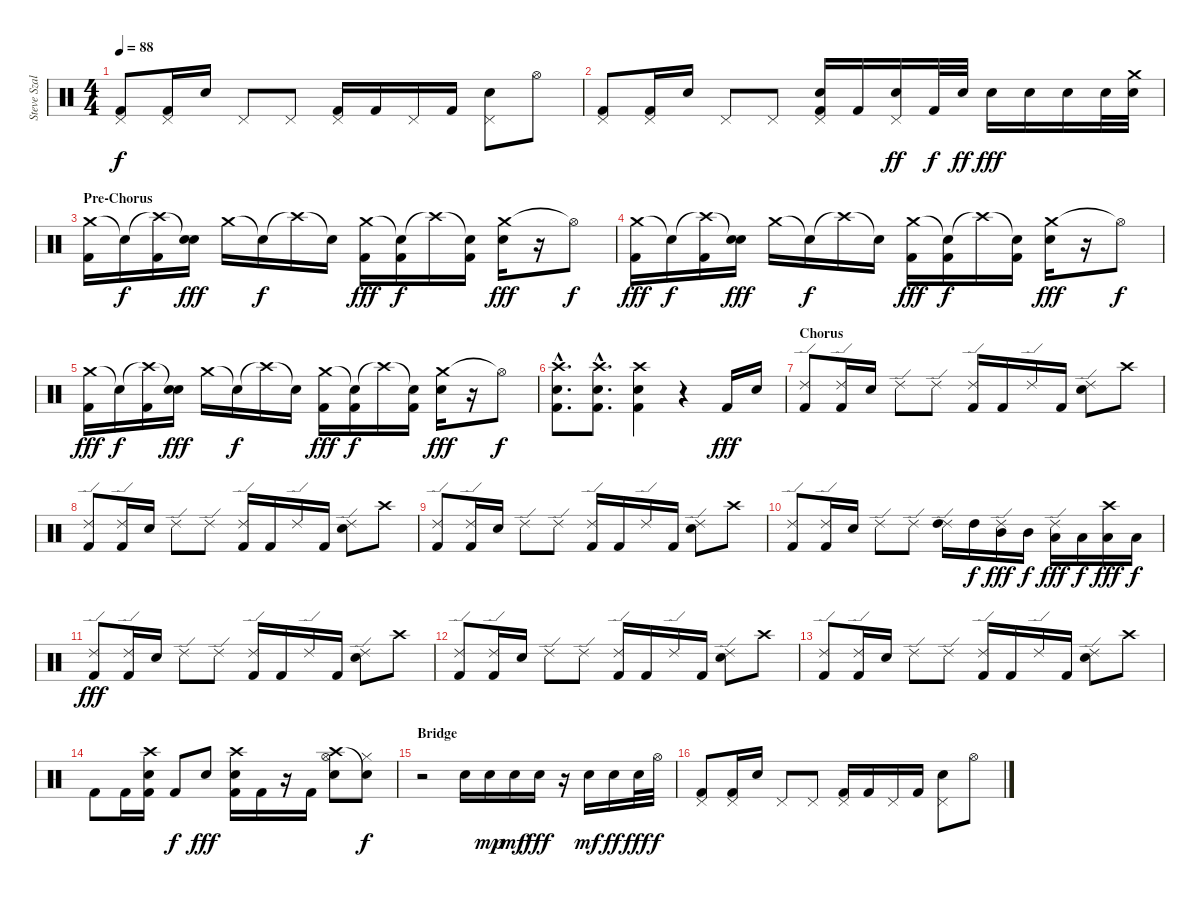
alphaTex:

\track ("Steve Szalay " "Steve Szal") {instrument percussion}
\staff {score}
\articulation defaults
\ts (4 4)
\tempo 88
\clef neutral
\ks c
("Pedal Hi-Hat (hit)" "Kick (hit) 2").8{dy f} ("Pedal Hi-Hat (hit)" "Kick (hit) 2").16 "Electric Snare (hit)".16 "Pedal Hi-Hat (hit)".8 "Pedal Hi-Hat (hit)".8 ("Pedal Hi-Hat (hit)" "Kick (hit) 2").16 "Kick (hit) 2".16 "Pedal Hi-Hat (hit)".16 "Kick (hit) 2".16 ("Pedal Hi-Hat (hit)" "Electric Snare (hit)").8 "Hi-Hat (open)".8 |
("Pedal Hi-Hat (hit)" "Kick (hit) 2").8 ("Pedal Hi-Hat (hit)" "Kick (hit) 2").16 "Electric Snare (hit)".16 "Pedal Hi-Hat (hit)".8 "Pedal Hi-Hat (hit)".8 ("Pedal Hi-Hat (hit)" "Electric Snare (hit)" "Kick (hit) 2").16 "Kick (hit) 2".16 ("Pedal Hi-Hat (hit)" "Electric Snare (hit)").16{dy ff} "Kick (hit) 2".32{dy f} "Electric Snare (hit)".32{dy ff} "Electric Snare (hit)".16{dy fff} "Electric Snare (hit)".16 "Electric Snare (hit)".16 "Electric Snare (hit)".32 ("Crash medium (hit)" "Electric Snare (hit)").32 |
\section ("" "Pre-Chorus")
("Crash medium (hit)" "Kick (hit) 2").16 "Snare (hit)"{t}.16{dy f} ("Crash high (hit)"{t} "Kick (hit) 2").16 ("Snare (hit)"{t} "Electric Snare (hit)").16{dy fff} "Crash medium (hit)".16 "Snare (hit)"{t}.16{dy f} "Crash high (hit)"{t}.16 "Snare (hit)"{t}.16 ("Crash medium (hit)" "Kick (hit) 2").16{dy fff} ("Snare (hit)"{t} "Kick (hit) 2").16{dy f} "Crash high (hit)"{t}.16 ("Snare (hit)"{t} "Kick (hit) 2").16 ("Crash medium (hit)" "Electric Snare (hit)").16{dy fff} r.16 "Hi-Hat (open)"{t}.8{dy f} |
("Crash medium (hit)" "Kick (hit) 2").16{dy fff} "Snare (hit)"{t}.16{dy f} ("Crash high (hit)"{t} "Kick (hit) 2").16 ("Snare (hit)"{t} "Electric Snare (hit)").16{dy fff} "Crash medium (hit)".16 "Snare (hit)"{t}.16{dy f} "Crash high (hit)"{t}.16 "Snare (hit)"{t}.16 ("Crash medium (hit)" "Kick (hit) 2").16{dy fff} ("Snare (hit)"{t} "Kick (hit) 2").16{dy f} "Crash high (hit)"{t}.16 ("Snare (hit)"{t} "Kick (hit) 2").16 ("Crash medium (hit)" "Electric Snare (hit)").16{dy fff} r.16 "Hi-Hat (open)"{t}.8{dy f} |
("Crash medium (hit)" "Kick (hit) 2").16{dy fff} "Snare (hit)"{t}.16{dy f} ("Crash high (hit)"{t} "Kick (hit) 2").16 ("Snare (hit)"{t} "Electric Snare (hit)").16{dy fff} "Crash medium (hit)".16 "Snare (hit)"{t}.16{dy f} "Crash high (hit)"{t}.16 "Snare (hit)"{t}.16 ("Crash medium (hit)" "Kick (hit) 2").16{dy fff} ("Snare (hit)"{t} "Kick (hit) 2").16{dy f} "Crash high (hit)"{t}.16 ("Snare (hit)"{t} "Kick (hit) 2").16 ("Crash medium (hit)" "Electric Snare (hit)").16{dy fff} r.16 "Hi-Hat (open)"{t}.8{dy f} |
("Crash high (hit)"{hac} "Electric Snare (hit)"{hac} "Kick (hit) 2"{hac}).8{d} ("Crash high (hit)"{hac} "Electric Snare (hit)"{hac} "Kick (hit) 2"{hac}).8{d} ("Crash high (hit)" "Electric Snare (hit)" "Kick (hit) 2").4 r.4 "Kick (hit) 2".16{dy fff} "Electric Snare (hit)".16 |
\section ("" "Chorus")
("Ride (edge) 2" "Kick (hit) 2").8 ("Ride (edge) 2" "Kick (hit) 2").16 "Electric Snare (hit)".16 "Ride (edge) 2".8 "Ride (edge) 2".8 ("Ride (edge) 2" "Kick (hit) 2").16 "Kick (hit) 2".16 "Ride (edge) 2".16 "Kick (hit) 2".16 ("Ride (edge) 2" "Electric Snare (hit)").8 "Crash high (hit)".8 |
("Ride (edge) 2" "Kick (hit) 2").8 ("Ride (edge) 2" "Kick (hit) 2").16 "Electric Snare (hit)".16 "Ride (edge) 2".8 "Ride (edge) 2".8 ("Ride (edge) 2" "Kick (hit) 2").16 "Kick (hit) 2".16 "Ride (edge) 2".16 "Kick (hit) 2".16 ("Ride (edge) 2" "Electric Snare (hit)").8 "Crash high (hit)".8 |
("Ride (edge) 2" "Kick (hit) 2").8 ("Ride (edge) 2" "Kick (hit) 2").16 "Electric Snare (hit)".16 "Ride (edge) 2".8 "Ride (edge) 2".8 ("Ride (edge) 2" "Kick (hit) 2").16 "Kick (hit) 2".16 "Ride (edge) 2".16 "Kick (hit) 2".16 ("Ride (edge) 2" "Electric Snare (hit)").8 "Crash high (hit)".8 |
("Ride (edge) 2" "Kick (hit) 2").8 ("Ride (edge) 2" "Kick (hit) 2").16 "Electric Snare (hit)".16 "Ride (edge) 2".8 "Ride (edge) 2".8 ("Ride (edge) 2" "High Tom (hit)").16 "High Tom (hit)".16{dy f} ("Ride (edge) 2" "Mid Tom (hit)").16{dy fff} "Mid Tom (hit)".16{dy f} ("Ride (edge) 2" "Low Floor Tom (hit)").16{dy fff} "Low Floor Tom (hit)".16{dy f} ("Crash high (hit)" "Low Floor Tom (hit)").16{dy fff} "Low Floor Tom (hit)".16{dy f} |
("Ride (edge) 2" "Kick (hit) 2").8{dy fff} ("Ride (edge) 2" "Kick (hit) 2").16 "Electric Snare (hit)".16 "Ride (edge) 2".8 "Ride (edge) 2".8 ("Ride (edge) 2" "Kick (hit) 2").16 "Kick (hit) 2".16 "Ride (edge) 2".16 "Kick (hit) 2".16 ("Ride (edge) 2" "Electric Snare (hit)").8 "Crash high (hit)".8 |
("Ride (edge) 2" "Kick (hit) 2").8 ("Ride (edge) 2" "Kick (hit) 2").16 "Electric Snare (hit)".16 "Ride (edge) 2".8 "Ride (edge) 2".8 ("Ride (edge) 2" "Kick (hit) 2").16 "Kick (hit) 2".16 "Ride (edge) 2".16 "Kick (hit) 2".16 ("Ride (edge) 2" "Electric Snare (hit)").8 "Crash high (hit)".8 |
("Ride (edge) 2" "Kick (hit) 2").8 ("Ride (edge) 2" "Kick (hit) 2").16 "Electric Snare (hit)".16 "Ride (edge) 2".8 "Ride (edge) 2".8 ("Ride (edge) 2" "Kick (hit) 2").16 "Kick (hit) 2".16 "Ride (edge) 2".16 "Kick (hit) 2".16 ("Ride (edge) 2" "Electric Snare (hit)").8 "Crash high (hit)".8 |
"Kick (hit) 2".8 "Kick (hit) 2".16 ("Crash high (hit)" "Electric Snare (hit)" "Kick (hit) 2").16 "Kick (hit) 2".8{dy f} "Electric Snare (hit)".8{dy fff} ("Crash high (hit)" "Electric Snare (hit)" "Kick (hit) 2").16 "Kick (hit) 2".16 r.16 "Kick (hit) 2".16 ("Crash high (hit)" "Hi-Hat (open)" "Electric Snare (hit)").8 ("Snare (hit)"{t} "Hi-Hat (closed)").8{dy f} |
\section ("" "Bridge")
r.2 "Electric Snare (hit)".16 "Electric Snare (hit)".16{dy mp} "Electric Snare (hit)".16{dy mf} "Electric Snare (hit)".16{dy fff} r.16 "Electric Snare (hit)".16{dy mf} "Electric Snare (hit)".16{dy ff} "Electric Snare (hit)".32{dy fff} "Hi-Hat (open)".32{dy f} |
("Pedal Hi-Hat (hit)" "Kick (hit) 2").8 ("Pedal Hi-Hat (hit)" "Kick (hit) 2").16 "Electric Snare (hit)".16 "Pedal Hi-Hat (hit)".8 "Pedal Hi-Hat (hit)".8 ("Pedal Hi-Hat (hit)" "Kick (hit) 2").16 "Kick (hit) 2".16 "Pedal Hi-Hat (hit)".16 "Kick (hit) 2".16 ("Pedal Hi-Hat (hit)" "Electric Snare (hit)").8 "Hi-Hat (open)".8
